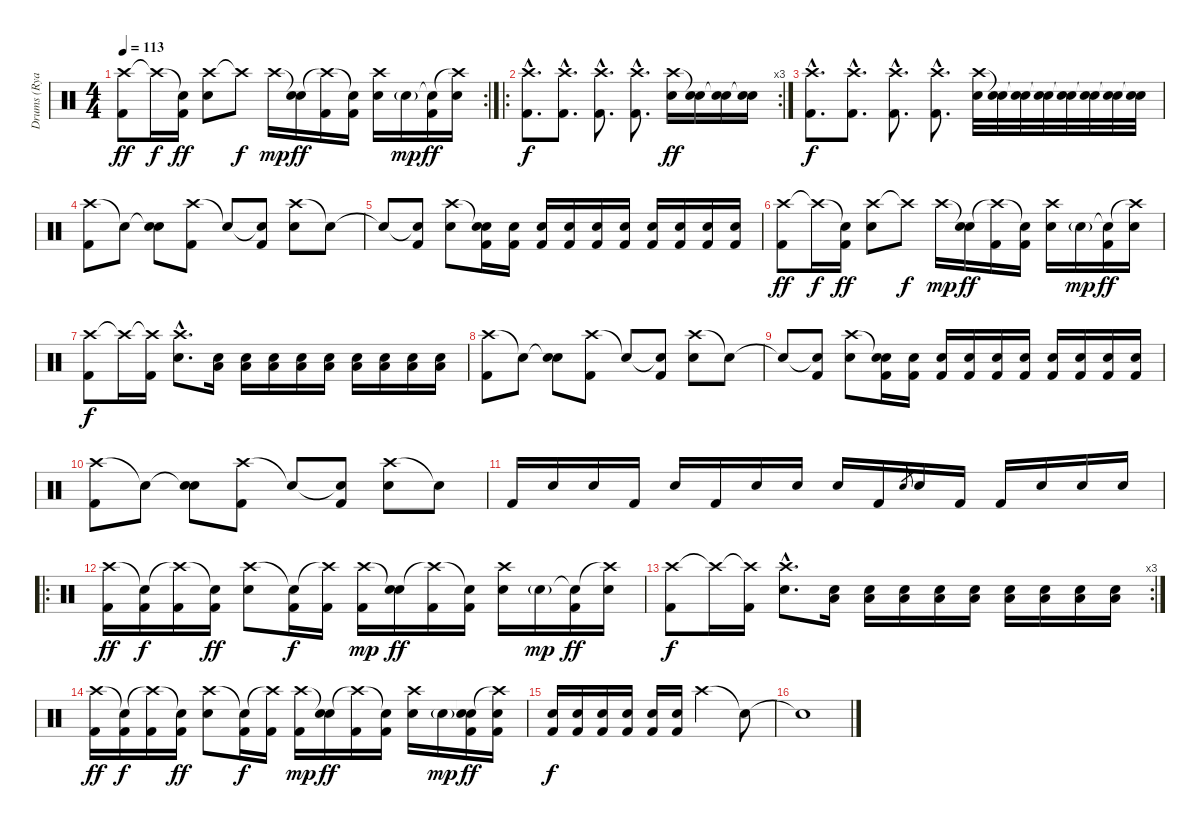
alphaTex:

\track ("Drums (Ryan \"Nik\" Vikedal)" "Drums (Rya") {instrument percussion}
\staff {score}
\articulation defaults
\rc 2
\ts (4 4)
\tempo 113
\clef neutral
\ks c
("Crash high (hit)" "Kick (hit) 2").8{dy ff} "Crash high (hit)"{t}.16{dy f} ("Snare (hit)"{t} "Kick (hit) 2").16{dy ff} ("Crash high (hit)" "Electric Snare (hit)").8 "Crash high (hit)"{t}.8{dy f} "Crash high (hit)".16{dy mp} ("Snare (hit)"{t} "Electric Snare (hit)").16{dy ff} ("Crash high (hit)"{t} "Kick (hit) 2").16 ("Snare (hit)"{t} "Kick (hit) 2").16 ("Crash high (hit)" "Electric Snare (hit)").16 "Electric Snare (hit)"{g}.16{dy mp} ("Snare (hit)"{t} "Kick (hit) 2").16{dy ff} ("Crash high (hit)"{t} "Electric Snare (hit)").16 |
\ro
\rc 3
("Crash high (hit)"{hac} "Kick (hit) 2"{hac}).8{d dy f} ("Crash high (hit)"{hac} "Kick (hit) 2"{hac}).8{d} ("Crash high (hit)"{hac} "Kick (hit) 2"{hac}).8{d} ("Crash high (hit)"{hac} "Kick (hit) 2"{hac}).8{d} ("Crash high (hit)" "Electric Snare (hit)").16{dy ff} ("Snare (hit)"{t} "Electric Snare (hit)").16 ("Snare (hit)"{t} "Electric Snare (hit)").16 ("Snare (hit)"{t} "Electric Snare (hit)").16 |
("Crash high (hit)"{hac} "Kick (hit) 2"{hac}).8{d dy f} ("Crash high (hit)"{hac} "Kick (hit) 2"{hac}).8{d} ("Crash high (hit)"{hac} "Kick (hit) 2"{hac}).8{d} ("Crash high (hit)"{hac} "Kick (hit) 2"{hac}).8{d} ("Crash high (hit)" "Electric Snare (hit)").32 ("Snare (hit)"{t} "Electric Snare (hit)").32 ("Snare (hit)"{t} "Electric Snare (hit)").32 ("Snare (hit)"{t} "Electric Snare (hit)").32 ("Snare (hit)"{t} "Electric Snare (hit)").32 ("Snare (hit)"{t} "Electric Snare (hit)").32 ("Snare (hit)"{t} "Electric Snare (hit)").32 ("Snare (hit)"{t} "Electric Snare (hit)").32 |
("Crash high (hit)" "Kick (hit) 2").8 "Snare (hit)"{t}.8 ("Snare (hit)"{t} "Electric Snare (hit)").8 ("Crash high (hit)" "Kick (hit) 2").8 "Snare (hit)"{t}.8 ("Snare (hit)"{t} "Kick (hit) 2").8 ("Crash high (hit)" "Electric Snare (hit)").8 "Snare (hit)"{t}.8 |
"Snare (hit)"{t}.8 ("Snare (hit)"{t} "Kick (hit) 2").8 ("Crash high (hit)" "Electric Snare (hit)").8 ("Snare (hit)"{t} "Electric Snare (hit)" "Kick (hit) 2").16 ("Electric Snare (hit)" "Kick (hit) 2").16 ("Electric Snare (hit)" "Kick (hit) 2").16 ("Electric Snare (hit)" "Kick (hit) 2").16 ("Electric Snare (hit)" "Kick (hit) 2").16 ("Electric Snare (hit)" "Kick (hit) 2").16 ("Electric Snare (hit)" "Kick (hit) 2").16 ("Electric Snare (hit)" "Kick (hit) 2").16 ("Electric Snare (hit)" "Kick (hit) 2").16 ("Electric Snare (hit)" "Kick (hit) 2").16 |
("Crash high (hit)" "Kick (hit) 2").8{dy ff} "Crash high (hit)"{t}.16{dy f} ("Snare (hit)"{t} "Kick (hit) 2").16{dy ff} ("Crash high (hit)" "Electric Snare (hit)").8 "Crash high (hit)"{t}.8{dy f} "Crash high (hit)".16{dy mp} ("Snare (hit)"{t} "Electric Snare (hit)").16{dy ff} ("Crash high (hit)"{t} "Kick (hit) 2").16 ("Snare (hit)"{t} "Kick (hit) 2").16 ("Crash high (hit)" "Electric Snare (hit)").16 "Electric Snare (hit)"{g}.16{dy mp} ("Snare (hit)"{t} "Kick (hit) 2").16{dy ff} ("Crash high (hit)"{t} "Electric Snare (hit)").16 |
("Crash high (hit)" "Kick (hit) 2").8{dy f} "Crash high (hit)"{t}.16 ("Crash high (hit)"{t} "Kick (hit) 2").16 ("Crash high (hit)"{hac} "Electric Snare (hit)"{hac}).8{d} ("Low Tom (hit)" "Electric Snare (hit)").16 ("Low Tom (hit)" "Electric Snare (hit)").16 ("Low Tom (hit)" "Electric Snare (hit)").16 ("Low Tom (hit)" "Electric Snare (hit)").16 ("Low Tom (hit)" "Electric Snare (hit)").16 ("Low Tom (hit)" "Electric Snare (hit)").16 ("Low Tom (hit)" "Electric Snare (hit)").16 ("Low Tom (hit)" "Electric Snare (hit)").16 ("Low Tom (hit)" "Electric Snare (hit)").16 |
("Crash high (hit)" "Kick (hit) 2").8 "Snare (hit)"{t}.8 ("Snare (hit)"{t} "Electric Snare (hit)").8 ("Crash high (hit)" "Kick (hit) 2").8 "Snare (hit)"{t}.8 ("Snare (hit)"{t} "Kick (hit) 2").8 ("Crash high (hit)" "Electric Snare (hit)").8 "Snare (hit)"{t}.8 |
"Snare (hit)"{t}.8 ("Snare (hit)"{t} "Kick (hit) 2").8 ("Crash high (hit)" "Electric Snare (hit)").8 ("Snare (hit)"{t} "Electric Snare (hit)" "Kick (hit) 2").16 ("Electric Snare (hit)" "Kick (hit) 2").16 ("Electric Snare (hit)" "Kick (hit) 2").16 ("Electric Snare (hit)" "Kick (hit) 2").16 ("Electric Snare (hit)" "Kick (hit) 2").16 ("Electric Snare (hit)" "Kick (hit) 2").16 ("Electric Snare (hit)" "Kick (hit) 2").16 ("Electric Snare (hit)" "Kick (hit) 2").16 ("Electric Snare (hit)" "Kick (hit) 2").16 ("Electric Snare (hit)" "Kick (hit) 2").16 |
("Crash high (hit)" "Kick (hit) 2").8 "Snare (hit)"{t}.8 ("Snare (hit)"{t} "Electric Snare (hit)").8 ("Crash high (hit)" "Kick (hit) 2").8 "Snare (hit)"{t}.8 ("Snare (hit)"{t} "Kick (hit) 2").8 ("Crash high (hit)" "Electric Snare (hit)").8 "Snare (hit)"{t}.8 |
"Kick (hit) 2".16 "Electric Snare (hit)".16 "Electric Snare (hit)".16 "Kick (hit) 2".16 "Electric Snare (hit)".16 "Kick (hit) 2".16 "Electric Snare (hit)".16 "Electric Snare (hit)".16 "Electric Snare (hit)".16 "Kick (hit) 2".16 "Electric Snare (hit)".8{gr} "Electric Snare (hit)".16 "Kick (hit) 2".16 "Kick (hit) 2".16 "Electric Snare (hit)".16 "Electric Snare (hit)".16 "Electric Snare (hit)".16 |
\ro
("Crash high (hit)" "Kick (hit) 2").16{dy ff} ("Snare (hit)"{t} "Kick (hit) 2").16{dy f} ("Crash high (hit)"{t} "Kick (hit) 2").16 ("Snare (hit)"{t} "Kick (hit) 2").16{dy ff} ("Crash high (hit)" "Electric Snare (hit)").8 ("Snare (hit)"{t} "Kick (hit) 2").16{dy f} ("Crash high (hit)"{t} "Kick (hit) 2").16 ("Crash high (hit)" "Kick (hit) 2").16{dy mp} ("Snare (hit)"{t} "Electric Snare (hit)").16{dy ff} ("Crash high (hit)"{t} "Kick (hit) 2").16 ("Snare (hit)"{t} "Kick (hit) 2").16 ("Crash high (hit)" "Electric Snare (hit)").16 "Electric Snare (hit)"{g}.16{dy mp} ("Snare (hit)"{t} "Kick (hit) 2").16{dy ff} ("Crash high (hit)"{t} "Electric Snare (hit)").16 |
\rc 3
("Crash high (hit)" "Kick (hit) 2").8{dy f} "Crash high (hit)"{t}.16 ("Crash high (hit)"{t} "Kick (hit) 2").16 ("Crash high (hit)"{hac} "Electric Snare (hit)"{hac}).8{d} ("Low Tom (hit)" "Electric Snare (hit)").16 ("Low Tom (hit)" "Electric Snare (hit)").16 ("Low Tom (hit)" "Electric Snare (hit)").16 ("Low Tom (hit)" "Electric Snare (hit)").16 ("Low Tom (hit)" "Electric Snare (hit)").16 ("Low Tom (hit)" "Electric Snare (hit)").16 ("Low Tom (hit)" "Electric Snare (hit)").16 ("Low Tom (hit)" "Electric Snare (hit)").16 ("Low Tom (hit)" "Electric Snare (hit)").16 |
("Crash high (hit)" "Kick (hit) 2").16{dy ff} ("Snare (hit)"{t} "Kick (hit) 2").16{dy f} ("Crash high (hit)"{t} "Kick (hit) 2").16 ("Snare (hit)"{t} "Kick (hit) 2").16{dy ff} ("Crash high (hit)" "Electric Snare (hit)").8 ("Snare (hit)"{t} "Kick (hit) 2").16{dy f} ("Crash high (hit)"{t} "Kick (hit) 2").16 ("Crash high (hit)" "Kick (hit) 2").16{dy mp} ("Snare (hit)"{t} "Electric Snare (hit)").16{dy ff} ("Crash high (hit)"{t} "Kick (hit) 2").16 ("Snare (hit)"{t} "Kick (hit) 2").16 ("Crash high (hit)" "Electric Snare (hit)").16 "Electric Snare (hit)"{g}.16{dy mp} ("Snare (hit)"{t} "Electric Snare (hit)" "Kick (hit) 2").16{dy ff} ("Crash high (hit)"{t} "Electric Snare (hit)" "Kick (hit) 2").16 |
("Electric Snare (hit)" "Kick (hit) 2").16{dy f} ("Electric Snare (hit)" "Kick (hit) 2").16 ("Electric Snare (hit)" "Kick (hit) 2").16 ("Electric Snare (hit)" "Kick (hit) 2").16 ("Electric Snare (hit)" "Kick (hit) 2").16 ("Electric Snare (hit)" "Kick (hit) 2").16 "Crash high (hit)".2 "Snare (hit)"{t}.8 |
"Snare (hit)"{t}.1
